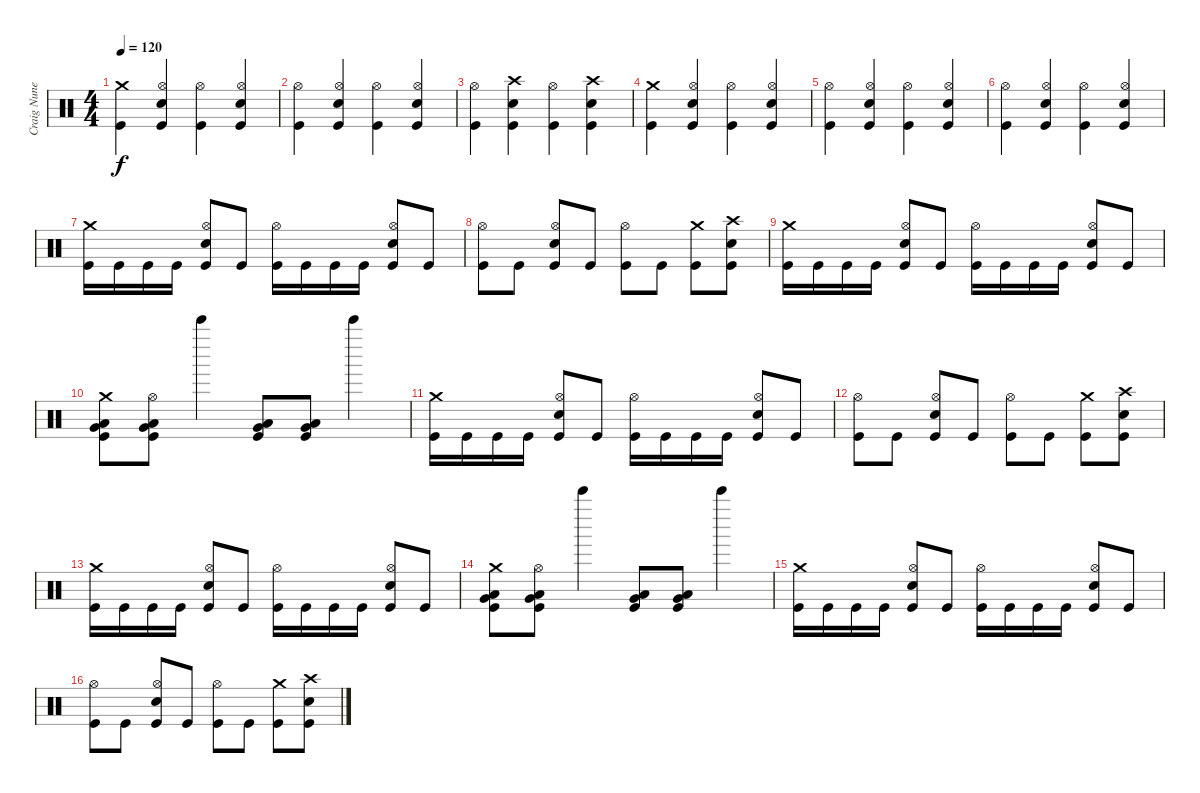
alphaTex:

\track ("Craig Nunenmacher" "Craig Nune") {instrument percussion}
\staff {score}
\articulation defaults
\ts (4 4)
\tempo 120
\clef neutral
\ks c
("Crash medium (hit)" "Kick (hit)").4{dy f} ("Hi-Hat (open)" "Snare (hit) 2" "Kick (hit)").4 ("Hi-Hat (open)" "Kick (hit)").4 ("Hi-Hat (open)" "Snare (hit) 2" "Kick (hit)").4 |
("Hi-Hat (open)" "Kick (hit)").4 ("Hi-Hat (open)" "Snare (hit) 2" "Kick (hit)").4 ("Hi-Hat (open)" "Kick (hit)").4 ("Hi-Hat (open)" "Snare (hit) 2" "Kick (hit)").4 |
("Hi-Hat (open)" "Kick (hit)").4 ("Crash high (hit)" "Snare (hit) 2" "Kick (hit)").4 ("Hi-Hat (open)" "Kick (hit)").4 ("Crash high (hit)" "Snare (hit) 2" "Kick (hit)").4 |
("Crash medium (hit)" "Kick (hit)").4 ("Hi-Hat (open)" "Snare (hit) 2" "Kick (hit)").4 ("Hi-Hat (open)" "Kick (hit)").4 ("Hi-Hat (open)" "Snare (hit) 2" "Kick (hit)").4 |
("Hi-Hat (open)" "Kick (hit)").4 ("Hi-Hat (open)" "Snare (hit) 2" "Kick (hit)").4 ("Hi-Hat (open)" "Kick (hit)").4 ("Hi-Hat (open)" "Snare (hit) 2" "Kick (hit)").4 |
("Hi-Hat (open)" "Kick (hit)").4 ("Hi-Hat (open)" "Snare (hit) 2" "Kick (hit)").4 ("Hi-Hat (open)" "Kick (hit)").4 ("Hi-Hat (open)" "Snare (hit) 2" "Kick (hit)").4 |
("Crash medium (hit)" "Kick (hit)").16 "Kick (hit)".16 "Kick (hit)".16 "Kick (hit)".16 ("Hi-Hat (open)" "Snare (hit) 2" "Kick (hit)").8 "Kick (hit)".8 ("Hi-Hat (open)" "Kick (hit)").16 "Kick (hit)".16 "Kick (hit)".16 "Kick (hit)".16 ("Hi-Hat (open)" "Snare (hit) 2" "Kick (hit)").8 "Kick (hit)".8 |
("Hi-Hat (open)" "Kick (hit)").8 "Kick (hit)".8 ("Hi-Hat (open)" "Snare (hit) 2" "Kick (hit)").8 "Kick (hit)".8 ("Hi-Hat (open)" "Kick (hit)").8 "Kick (hit)".8 ("Crash medium (hit)" "Kick (hit)").8 ("Crash high (hit)" "Snare (hit) 2" "Kick (hit)").8 |
("Crash medium (hit)" "Kick (hit)").16 "Kick (hit)".16 "Kick (hit)".16 "Kick (hit)".16 ("Hi-Hat (open)" "Snare (hit) 2" "Kick (hit)").8 "Kick (hit)".8 ("Hi-Hat (open)" "Kick (hit)").16 "Kick (hit)".16 "Kick (hit)".16 "Kick (hit)".16 ("Hi-Hat (open)" "Snare (hit) 2" "Kick (hit)").8 "Kick (hit)".8 |
("Crash medium (hit)" "Low Tom (hit)" "Very Low Tom (hit)" "Kick (hit)").8 ("Hi-Hat (open)" "Low Tom (hit)" "Very Low Tom (hit)" "Kick (hit)").8 "Bell Tree (hit)".4 ("Low Tom (hit)" "Very Low Tom (hit)" "Kick (hit)").8 ("Low Tom (hit)" "Very Low Tom (hit)" "Kick (hit)").8 "Bell Tree (hit)".4 |
("Crash medium (hit)" "Kick (hit)").16 "Kick (hit)".16 "Kick (hit)".16 "Kick (hit)".16 ("Hi-Hat (open)" "Snare (hit) 2" "Kick (hit)").8 "Kick (hit)".8 ("Hi-Hat (open)" "Kick (hit)").16 "Kick (hit)".16 "Kick (hit)".16 "Kick (hit)".16 ("Hi-Hat (open)" "Snare (hit) 2" "Kick (hit)").8 "Kick (hit)".8 |
("Hi-Hat (open)" "Kick (hit)").8 "Kick (hit)".8 ("Hi-Hat (open)" "Snare (hit) 2" "Kick (hit)").8 "Kick (hit)".8 ("Hi-Hat (open)" "Kick (hit)").8 "Kick (hit)".8 ("Crash medium (hit)" "Kick (hit)").8 ("Crash high (hit)" "Snare (hit) 2" "Kick (hit)").8 |
("Crash medium (hit)" "Kick (hit)").16 "Kick (hit)".16 "Kick (hit)".16 "Kick (hit)".16 ("Hi-Hat (open)" "Snare (hit) 2" "Kick (hit)").8 "Kick (hit)".8 ("Hi-Hat (open)" "Kick (hit)").16 "Kick (hit)".16 "Kick (hit)".16 "Kick (hit)".16 ("Hi-Hat (open)" "Snare (hit) 2" "Kick (hit)").8 "Kick (hit)".8 |
("Crash medium (hit)" "Low Tom (hit)" "Very Low Tom (hit)" "Kick (hit)").8 ("Hi-Hat (open)" "Low Tom (hit)" "Very Low Tom (hit)" "Kick (hit)").8 "Bell Tree (hit)".4 ("Low Tom (hit)" "Very Low Tom (hit)" "Kick (hit)").8 ("Low Tom (hit)" "Very Low Tom (hit)" "Kick (hit)").8 "Bell Tree (hit)".4 |
("Crash medium (hit)" "Kick (hit)").16 "Kick (hit)".16 "Kick (hit)".16 "Kick (hit)".16 ("Hi-Hat (open)" "Snare (hit) 2" "Kick (hit)").8 "Kick (hit)".8 ("Hi-Hat (open)" "Kick (hit)").16 "Kick (hit)".16 "Kick (hit)".16 "Kick (hit)".16 ("Hi-Hat (open)" "Snare (hit) 2" "Kick (hit)").8 "Kick (hit)".8 |
("Hi-Hat (open)" "Kick (hit)").8 "Kick (hit)".8 ("Hi-Hat (open)" "Snare (hit) 2" "Kick (hit)").8 "Kick (hit)".8 ("Hi-Hat (open)" "Kick (hit)").8 "Kick (hit)".8 ("Crash medium (hit)" "Kick (hit)").8 ("Crash high (hit)" "Snare (hit) 2" "Kick (hit)").8
